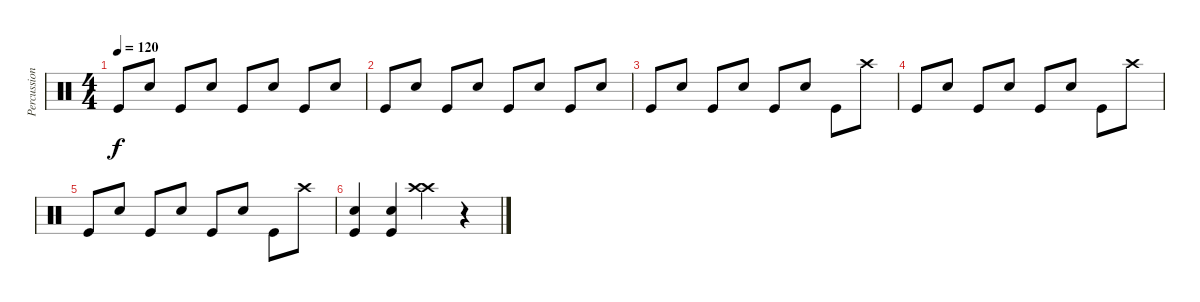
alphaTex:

\track ("Percussion" "Percussion") {instrument percussion}
\staff {score}
\articulation defaults
\ts (4 4)
\tempo 120
\clef neutral
\ks c "Kick (hit)".8{dy f} "Snare (hit) 2".8 "Kick (hit)".8 "Snare (hit) 2".8 "Kick (hit)".8 "Snare (hit) 2".8 "Kick (hit)".8 "Snare (hit) 2".8
|
"Kick (hit)".8 "Snare (hit) 2".8 "Kick (hit)".8 "Snare (hit) 2".8 "Kick (hit)".8 "Snare (hit) 2".8 "Kick (hit)".8 "Snare (hit) 2".8 |
"Kick (hit)".8 "Snare (hit) 2".8 "Kick (hit)".8 "Snare (hit) 2".8 "Kick (hit)".8 "Snare (hit) 2".8 "Kick (hit)".8 "Crash high (hit)".8 |
"Kick (hit)".8 "Snare (hit) 2".8 "Kick (hit)".8 "Snare (hit) 2".8 "Kick (hit)".8 "Snare (hit) 2".8 "Kick (hit)".8 "Crash high (hit)".8 |
"Kick (hit)".8 "Snare (hit) 2".8 "Kick (hit)".8 "Snare (hit) 2".8 "Kick (hit)".8 "Snare (hit) 2".8 "Kick (hit)".8 "Crash high (hit)".8 |
("Kick (hit)" "Snare (hit) 2").4 ("Kick (hit)" "Snare (hit) 2").4 ("Crash high (hit)" "Crash high (hit)").4 r.4
